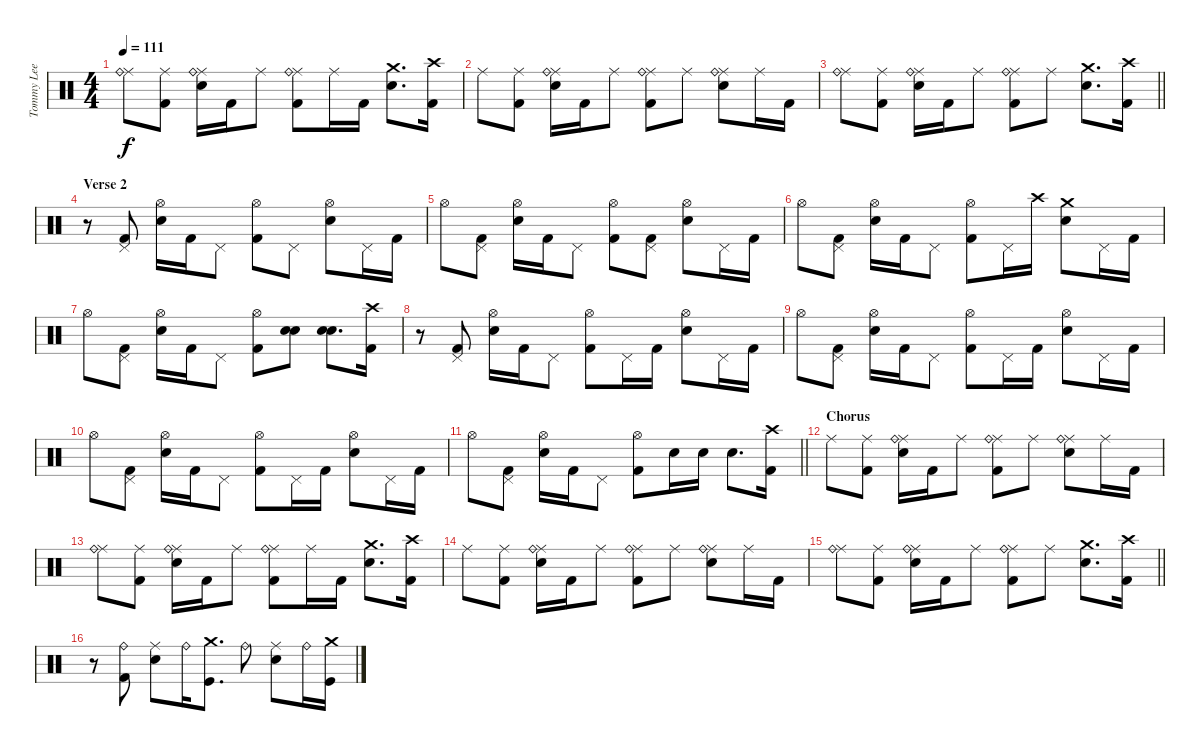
\track ("Tommy Lee" "Tommy Lee") {instrument percussion}
\staff {score}
\articulation defaults
\ts (4 4)
\tempo 111
\clef neutral
\ks c
("Ride (middle)" "Ride (bell)").8{dy f} ("Ride (middle)" "Kick (hit) 2").8 ("Ride (middle)" "Ride (bell)" "Snare (hit) 2").16 "Kick (hit) 2".16 "Ride (middle)".8 ("Ride (middle)" "Ride (bell)" "Kick (hit) 2").8 "Ride (middle)".16 "Kick (hit) 2".16 ("Crash medium (hit)" "Snare (hit) 2").8{d} ("Crash high (hit)" "Kick (hit) 2").16 |
"Ride (middle)".8 ("Ride (middle)" "Kick (hit) 2").8 ("Ride (middle)" "Ride (bell)" "Snare (hit) 2").16 "Kick (hit) 2".16 "Ride (middle)".8 ("Ride (middle)" "Ride (bell)" "Kick (hit) 2").8 "Ride (middle)".8 ("Ride (middle)" "Ride (bell)" "Snare (hit) 2").8 "Ride (middle)".16 "Kick (hit) 2".16 |
\barLineRight lightlight
("Ride (middle)" "Ride (bell)").8 ("Ride (middle)" "Kick (hit) 2").8 ("Ride (middle)" "Ride (bell)" "Snare (hit) 2").16 "Kick (hit) 2".16 "Ride (middle)".8 ("Ride (middle)" "Ride (bell)" "Kick (hit) 2").8 "Ride (middle)".8 ("Crash medium (hit)" "Snare (hit) 2").8{d} ("Crash high (hit)" "Kick (hit) 2").16 |
\section ("" "Verse 2")
r.8 ("Pedal Hi-Hat (hit)" "Kick (hit) 2").8 ("Hi-Hat (open)" "Snare (hit) 2").16 "Kick (hit) 2".16 "Pedal Hi-Hat (hit)".8 ("Hi-Hat (open)" "Kick (hit) 2").8 "Pedal Hi-Hat (hit)".8 ("Hi-Hat (open)" "Snare (hit) 2").8 "Pedal Hi-Hat (hit)".16 "Kick (hit) 2".16 |
"Hi-Hat (open)".8 ("Pedal Hi-Hat (hit)" "Kick (hit) 2").8 ("Hi-Hat (open)" "Snare (hit) 2").16 "Kick (hit) 2".16 "Pedal Hi-Hat (hit)".8 ("Hi-Hat (open)" "Kick (hit) 2").8 ("Pedal Hi-Hat (hit)" "Kick (hit) 2").8 ("Hi-Hat (open)" "Snare (hit) 2").8 "Pedal Hi-Hat (hit)".16 "Kick (hit) 2".16 |
"Hi-Hat (open)".8 ("Pedal Hi-Hat (hit)" "Kick (hit) 2").8 ("Hi-Hat (open)" "Snare (hit) 2").16 "Kick (hit) 2".16 "Pedal Hi-Hat (hit)".8 ("Hi-Hat (open)" "Kick (hit) 2").8 "Pedal Hi-Hat (hit)".16 "Crash high (hit)".16 ("Crash medium (hit)" "Snare (hit) 2").8 "Pedal Hi-Hat (hit)".16 "Kick (hit) 2".16 |
"Hi-Hat (open)".8 ("Pedal Hi-Hat (hit)" "Kick (hit) 2").8 ("Hi-Hat (open)" "Snare (hit) 2").16 "Kick (hit) 2".16 "Pedal Hi-Hat (hit)".8 ("Hi-Hat (open)" "Kick (hit) 2").8 ("Snare (hit) 2" "Snare (hit) 2").8 ("Snare (hit) 2" "Snare (hit) 2").8{d} ("Crash high (hit)" "Kick (hit) 2").16 |
r.8 ("Pedal Hi-Hat (hit)" "Kick (hit) 2").8 ("Hi-Hat (open)" "Snare (hit) 2").16 "Kick (hit) 2".16 "Pedal Hi-Hat (hit)".8 ("Hi-Hat (open)" "Kick (hit) 2").8 "Pedal Hi-Hat (hit)".16 "Kick (hit) 2".16 ("Hi-Hat (open)" "Snare (hit) 2").8 "Pedal Hi-Hat (hit)".16 "Kick (hit) 2".16 |
"Hi-Hat (open)".8 ("Pedal Hi-Hat (hit)" "Kick (hit) 2").8 ("Hi-Hat (open)" "Snare (hit) 2").16 "Kick (hit) 2".16 "Pedal Hi-Hat (hit)".8 ("Hi-Hat (open)" "Kick (hit) 2").8 "Pedal Hi-Hat (hit)".16 "Kick (hit) 2".16 ("Hi-Hat (open)" "Snare (hit) 2").8 "Pedal Hi-Hat (hit)".16 "Kick (hit) 2".16 |
"Hi-Hat (open)".8 ("Pedal Hi-Hat (hit)" "Kick (hit) 2").8 ("Hi-Hat (open)" "Snare (hit) 2").16 "Kick (hit) 2".16 "Pedal Hi-Hat (hit)".8 ("Hi-Hat (open)" "Kick (hit) 2").8 "Pedal Hi-Hat (hit)".16 "Kick (hit) 2".16 ("Hi-Hat (open)" "Snare (hit) 2").8 "Pedal Hi-Hat (hit)".16 "Kick (hit) 2".16 |
\barLineRight lightlight "Hi-Hat (open)".8
("Pedal Hi-Hat (hit)" "Kick (hit) 2").8 ("Hi-Hat (open)" "Snare (hit) 2").16 "Kick (hit) 2".16 "Pedal Hi-Hat (hit)".8 ("Hi-Hat (open)" "Kick (hit) 2").8 "Snare (hit) 2".16 "Snare (hit) 2".16 "Snare (hit) 2".8{d} ("Crash high (hit)" "Kick (hit) 2").16 |
\section ("" "Chorus")
"Ride (middle)".8 ("Ride (middle)" "Kick (hit) 2").8 ("Ride (middle)" "Ride (bell)" "Snare (hit) 2").16 "Kick (hit) 2".16 "Ride (middle)".8 ("Ride (middle)" "Ride (bell)" "Kick (hit) 2").8 "Ride (middle)".8 ("Ride (middle)" "Ride (bell)" "Snare (hit) 2").8 "Ride (middle)".16 "Kick (hit) 2".16 |
("Ride (middle)" "Ride (bell)").8 ("Ride (middle)" "Kick (hit) 2").8 ("Ride (middle)" "Ride (bell)" "Snare (hit) 2").16 "Kick (hit) 2".16 "Ride (middle)".8 ("Ride (middle)" "Ride (bell)" "Kick (hit) 2").8 "Ride (middle)".16 "Kick (hit) 2".16 ("Crash medium (hit)" "Snare (hit) 2").8{d} ("Crash high (hit)" "Kick (hit) 2").16 |
"Ride (middle)".8 ("Ride (middle)" "Kick (hit) 2").8 ("Ride (middle)" "Ride (bell)" "Snare (hit) 2").16 "Kick (hit) 2".16 "Ride (middle)".8 ("Ride (middle)" "Ride (bell)" "Kick (hit) 2").8 "Ride (middle)".8 ("Ride (middle)" "Ride (bell)" "Snare (hit) 2").8 "Ride (middle)".16 "Kick (hit) 2".16 |
\barLineRight lightlight
("Ride (middle)" "Ride (bell)").8 ("Ride (middle)" "Kick (hit) 2").8 ("Ride (middle)" "Ride (bell)" "Snare (hit) 2").16 "Kick (hit) 2".16 "Ride (middle)".8 ("Ride (middle)" "Ride (bell)" "Kick (hit) 2").8 "Ride (middle)".8 ("Crash medium (hit)" "Snare (hit) 2").8{d} ("Crash high (hit)" "Kick (hit) 2").16 |
r.8 ("Ride (bell)" "Kick (hit) 2").8 ("Ride (middle)" "Snare (hit) 2").8 "Ride (bell)".16 ("Crash medium (hit)" "Kick (hit)").8{d} "Ride (bell)".8 ("Ride (middle)" "Snare (hit) 2").8 "Ride (bell)".16 ("Crash medium (hit)" "Kick (hit)").16
